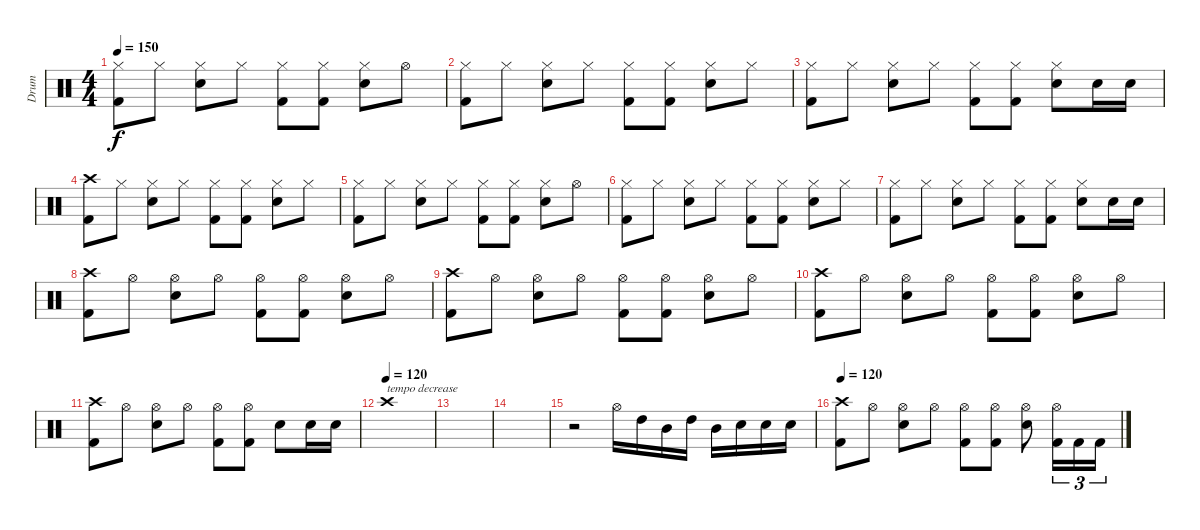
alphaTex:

\track ("Drum" "Drum") {instrument percussion}
\staff {score}
\articulation defaults
\ts (4 4)
\tempo 150
\clef neutral
\ks c
("Hi-Hat (closed)" "Kick (hit) 2").8{dy f} "Hi-Hat (closed)".8 ("Hi-Hat (closed)" "Electric Snare (hit)").8 "Hi-Hat (closed)".8 ("Hi-Hat (closed)" "Kick (hit) 2").8 ("Hi-Hat (closed)" "Kick (hit) 2").8 ("Hi-Hat (closed)" "Electric Snare (hit)").8 "Hi-Hat (open)".8 |
("Hi-Hat (closed)" "Kick (hit) 2").8 "Hi-Hat (closed)".8 ("Hi-Hat (closed)" "Electric Snare (hit)").8 "Hi-Hat (closed)".8 ("Hi-Hat (closed)" "Kick (hit) 2").8 ("Hi-Hat (closed)" "Kick (hit) 2").8 ("Hi-Hat (closed)" "Electric Snare (hit)").8 "Hi-Hat (closed)".8 |
("Hi-Hat (closed)" "Kick (hit) 2").8 "Hi-Hat (closed)".8 ("Hi-Hat (closed)" "Electric Snare (hit)").8 "Hi-Hat (closed)".8 ("Hi-Hat (closed)" "Kick (hit) 2").8 ("Hi-Hat (closed)" "Kick (hit) 2").8 ("Hi-Hat (closed)" "Electric Snare (hit)").8 "Electric Snare (hit)".16 "Electric Snare (hit)".16 |
("Crash high (hit)" "Kick (hit) 2").8 "Hi-Hat (closed)".8 ("Hi-Hat (closed)" "Electric Snare (hit)").8 "Hi-Hat (closed)".8 ("Hi-Hat (closed)" "Kick (hit) 2").8 ("Hi-Hat (closed)" "Kick (hit) 2").8 ("Hi-Hat (closed)" "Electric Snare (hit)").8 "Hi-Hat (closed)".8 |
("Hi-Hat (closed)" "Kick (hit) 2").8 "Hi-Hat (closed)".8 ("Hi-Hat (closed)" "Electric Snare (hit)").8 "Hi-Hat (closed)".8 ("Hi-Hat (closed)" "Kick (hit) 2").8 ("Hi-Hat (closed)" "Kick (hit) 2").8 ("Hi-Hat (closed)" "Electric Snare (hit)").8 "Hi-Hat (open)".8 |
("Hi-Hat (closed)" "Kick (hit) 2").8 "Hi-Hat (closed)".8 ("Hi-Hat (closed)" "Electric Snare (hit)").8 "Hi-Hat (closed)".8 ("Hi-Hat (closed)" "Kick (hit) 2").8 ("Hi-Hat (closed)" "Kick (hit) 2").8 ("Hi-Hat (closed)" "Electric Snare (hit)").8 "Hi-Hat (closed)".8 |
("Hi-Hat (closed)" "Kick (hit) 2").8 "Hi-Hat (closed)".8 ("Hi-Hat (closed)" "Electric Snare (hit)").8 "Hi-Hat (closed)".8 ("Hi-Hat (closed)" "Kick (hit) 2").8 ("Hi-Hat (closed)" "Kick (hit) 2").8 ("Hi-Hat (closed)" "Electric Snare (hit)").8 "Electric Snare (hit)".16 "Electric Snare (hit)".16 |
("Crash high (hit)" "Kick (hit) 2").8 "Hi-Hat (open)".8 ("Hi-Hat (open)" "Electric Snare (hit)").8 "Hi-Hat (open)".8 ("Hi-Hat (open)" "Kick (hit) 2").8 ("Hi-Hat (open)" "Kick (hit) 2").8 ("Hi-Hat (open)" "Electric Snare (hit)").8 "Hi-Hat (open)".8 |
("Crash high (hit)" "Kick (hit) 2").8 "Hi-Hat (open)".8 ("Hi-Hat (open)" "Electric Snare (hit)").8 "Hi-Hat (open)".8 ("Hi-Hat (open)" "Kick (hit) 2").8 ("Hi-Hat (open)" "Kick (hit) 2").8 ("Hi-Hat (open)" "Electric Snare (hit)").8 "Hi-Hat (open)".8 |
("Crash high (hit)" "Kick (hit) 2").8 "Hi-Hat (open)".8 ("Hi-Hat (open)" "Electric Snare (hit)").8 "Hi-Hat (open)".8 ("Hi-Hat (open)" "Kick (hit) 2").8 ("Hi-Hat (open)" "Kick (hit) 2").8 ("Hi-Hat (open)" "Electric Snare (hit)").8 "Hi-Hat (open)".8 |
("Crash high (hit)" "Kick (hit) 2").8 "Hi-Hat (open)".8 ("Hi-Hat (open)" "Electric Snare (hit)").8 "Hi-Hat (open)".8 ("Hi-Hat (open)" "Kick (hit) 2").8 ("Hi-Hat (open)" "Kick (hit) 2").8 "Electric Snare (hit)".8 "Electric Snare (hit)".16 "Electric Snare (hit)".16 |
\tempo (120)
"Crash high (hit)".1{txt "tempo decrease"} |
|
|
r.2 "Hi-Hat (open)".16 "High Tom (hit)".16 "Mid Tom (hit)".16 "High Tom (hit)".16 "Mid Tom (hit)".16 "Electric Snare (hit)".16 "Electric Snare (hit)".16 "Electric Snare (hit)".16 |
\tempo 120
("Crash high (hit)" "Kick (hit) 2").8 "Hi-Hat (open)".8 ("Hi-Hat (open)" "Electric Snare (hit)").8 "Hi-Hat (open)".8 ("Hi-Hat (open)" "Kick (hit) 2").8 ("Hi-Hat (open)" "Kick (hit) 2").8 ("Hi-Hat (open)" "Electric Snare (hit)").8 ("Hi-Hat (open)" "Kick (hit) 2").16{tu (3 2)} "Kick (hit) 2".16{tu (3 2)} "Kick (hit) 2".16{tu (3 2)}
